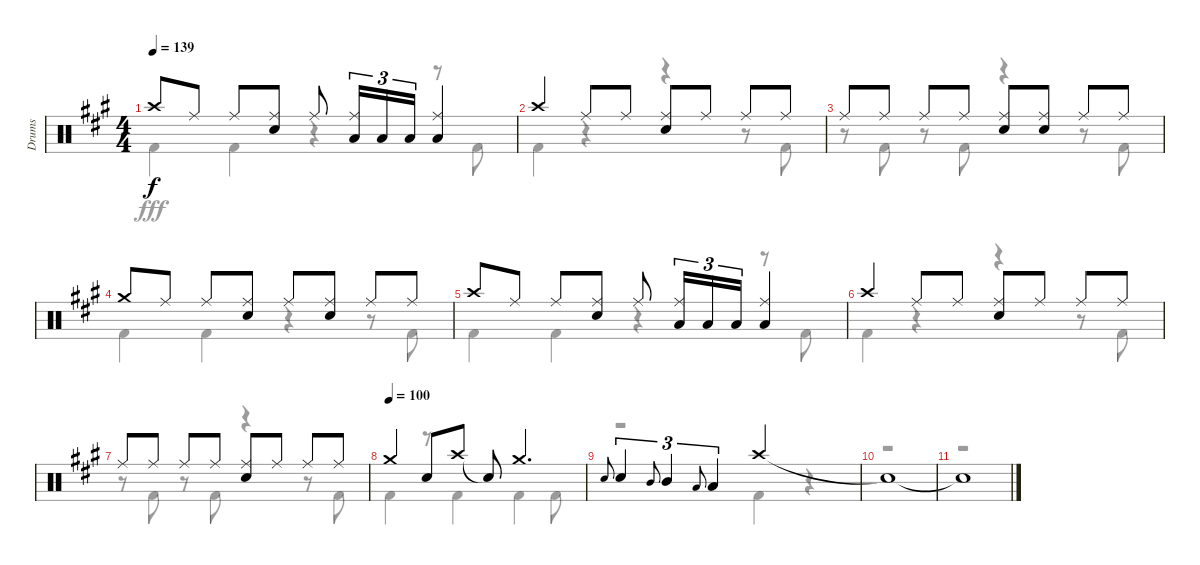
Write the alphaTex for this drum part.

\track ("Drums" "Drums") {instrument percussion}
\staff {score}
\articulation defaults
\voice
\ts (4 4)
\tempo 139
\clef neutral
\ks a "Crash high (hit)".8{dy f} "Ride (middle)".8 "Ride (middle)".8
("Ride (middle)" "Snare (hit) 2").8 "Ride (middle)".8 ("Ride (middle)" "Low Tom (hit)").16{tu (3 2)} "Low Tom (hit)".16{tu (3 2)} "Low Tom (hit)".16{tu (3 2)} ("Ride (middle)" "Low Tom (hit)").4 |
"Crash high (hit)".4 "Ride (middle)".8 "Ride (middle)".8 ("Ride (middle)" "Snare (hit) 2").8 "Ride (middle)".8 "Ride (middle)".8 "Ride (middle)".8 |
"Ride (middle)".8 "Ride (middle)".8 "Ride (middle)".8 "Ride (middle)".8 ("Ride (middle)" "Snare (hit) 2").8 ("Ride (middle)" "Snare (hit) 2").8 "Ride (middle)".8 "Ride (middle)".8 |
"Crash medium (hit)".8 "Ride (middle)".8 "Ride (middle)".8 ("Ride (middle)" "Snare (hit) 2").8 "Ride (middle)".8 ("Ride (middle)" "Snare (hit) 2").8 "Ride (middle)".8 "Ride (middle)".8 |
"Crash high (hit)".8 "Ride (middle)".8 "Ride (middle)".8 ("Ride (middle)" "Snare (hit) 2").8 "Ride (middle)".8 ("Ride (middle)" "Low Tom (hit)").16{tu (3 2)} "Low Tom (hit)".16{tu (3 2)} "Low Tom (hit)".16{tu (3 2)} ("Ride (middle)" "Low Tom (hit)").4 |
"Crash high (hit)".4 "Ride (middle)".8 "Ride (middle)".8 ("Ride (middle)" "Snare (hit) 2").8 "Ride (middle)".8 "Ride (middle)".8 "Ride (middle)".8 |
"Ride (middle)".8 "Ride (middle)".8 "Ride (middle)".8 "Ride (middle)".8 ("Ride (middle)" "Snare (hit) 2").8 "Ride (middle)".8 "Ride (middle)".8 "Ride (middle)".8 |
\tempo (100)
"Crash medium (hit)".4 "Snare (hit) 2".8 "Crash high (hit)".8 "Snare (hit)"{t}.8 "Crash medium (hit)".4{d} |
"Snare (hit) 2".8{gr onbeat} "Snare (hit) 2".4{tu (3 2)} "Mid Tom (hit)".8{gr onbeat} "Mid Tom (hit)".4{tu (3 2)} "Low Tom (hit)".8{gr onbeat} "Low Tom (hit)".4{tu (3 2)} "Crash high (hit)".2 |
"Snare (hit)"{t}.1 |
"Snare (hit)"{t}.1
\voice
\clef neutral
\ottava regular
\simile none
\ks a "Kick (hit) 2".4{dy fff} "Kick (hit) 2".4
r.4 r.8 "Kick (hit) 2".8 |
"Kick (hit) 2".4 r.4 r.4 r.8 "Kick (hit) 2".8 |
r.8 "Kick (hit) 2".8 r.8 "Kick (hit) 2".8 r.4 r.8 "Kick (hit) 2".8 |
"Kick (hit) 2".4 "Kick (hit) 2".4 r.4 r.8 "Kick (hit) 2".8 |
"Kick (hit) 2".4 "Kick (hit) 2".4 r.4 r.8 "Kick (hit) 2".8 |
"Kick (hit) 2".4 r.4 r.4 r.8 "Kick (hit) 2".8 |
r.8 "Kick (hit) 2".8 r.8 "Kick (hit) 2".8 r.4 r.8 "Kick (hit) 2".8 |
"Kick (hit) 2".4 r.8 "Kick (hit) 2".4 "Kick (hit) 2".4 "Kick (hit) 2".8 |
r.2 "Kick (hit) 2".4 r.4 |
r.1 |
r.1
